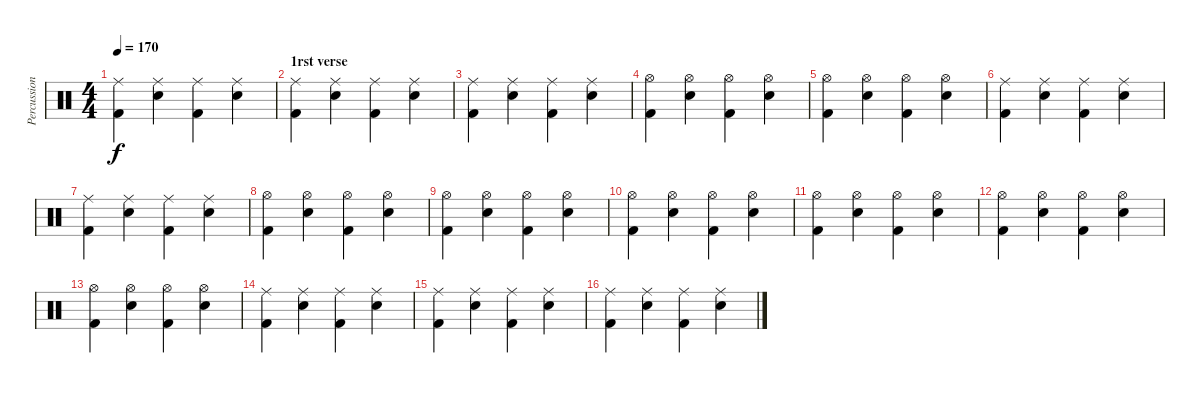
\track ("Percussion" "Percussion") {instrument percussion}
\staff {score}
\articulation defaults
\ts (4 4)
\tempo 170
\clef neutral
\ks c
("Ride (middle)" "Kick (hit) 2").4{dy f} ("Ride (middle)" "Electric Snare (hit)").4 ("Ride (middle)" "Kick (hit) 2").4 ("Ride (middle)" "Electric Snare (hit)").4 |
\section ("" "1rst verse")
("Ride (middle)" "Kick (hit) 2").4 ("Ride (middle)" "Electric Snare (hit)").4 ("Ride (middle)" "Kick (hit) 2").4 ("Ride (middle)" "Electric Snare (hit)").4 |
("Ride (middle)" "Kick (hit) 2").4 ("Ride (middle)" "Electric Snare (hit)").4 ("Ride (middle)" "Kick (hit) 2").4 ("Ride (middle)" "Electric Snare (hit)").4 |
("Hi-Hat (open)" "Kick (hit) 2").4 ("Hi-Hat (open)" "Electric Snare (hit)").4 ("Hi-Hat (open)" "Kick (hit) 2").4 ("Hi-Hat (open)" "Electric Snare (hit)").4 |
("Hi-Hat (open)" "Kick (hit) 2").4 ("Hi-Hat (open)" "Electric Snare (hit)").4 ("Hi-Hat (open)" "Kick (hit) 2").4 ("Hi-Hat (open)" "Electric Snare (hit)").4 |
("Ride (middle)" "Kick (hit) 2").4 ("Ride (middle)" "Electric Snare (hit)").4 ("Ride (middle)" "Kick (hit) 2").4 ("Ride (middle)" "Electric Snare (hit)").4 |
("Ride (middle)" "Kick (hit) 2").4 ("Ride (middle)" "Electric Snare (hit)").4 ("Ride (middle)" "Kick (hit) 2").4 ("Ride (middle)" "Electric Snare (hit)").4 |
("Hi-Hat (open)" "Kick (hit) 2").4 ("Hi-Hat (open)" "Electric Snare (hit)").4 ("Hi-Hat (open)" "Kick (hit) 2").4 ("Hi-Hat (open)" "Electric Snare (hit)").4 |
("Hi-Hat (open)" "Kick (hit) 2").4 ("Hi-Hat (open)" "Electric Snare (hit)").4 ("Hi-Hat (open)" "Kick (hit) 2").4 ("Hi-Hat (open)" "Electric Snare (hit)").4 |
("Hi-Hat (open)" "Kick (hit) 2").4 ("Hi-Hat (open)" "Electric Snare (hit)").4 ("Hi-Hat (open)" "Kick (hit) 2").4 ("Hi-Hat (open)" "Electric Snare (hit)").4 |
("Hi-Hat (open)" "Kick (hit) 2").4 ("Hi-Hat (open)" "Electric Snare (hit)").4 ("Hi-Hat (open)" "Kick (hit) 2").4 ("Hi-Hat (open)" "Electric Snare (hit)").4 |
("Hi-Hat (open)" "Kick (hit) 2").4 ("Hi-Hat (open)" "Electric Snare (hit)").4 ("Hi-Hat (open)" "Kick (hit) 2").4 ("Hi-Hat (open)" "Electric Snare (hit)").4 |
("Hi-Hat (open)" "Kick (hit) 2").4 ("Hi-Hat (open)" "Electric Snare (hit)").4 ("Hi-Hat (open)" "Kick (hit) 2").4 ("Hi-Hat (open)" "Electric Snare (hit)").4 |
("Ride (middle)" "Kick (hit) 2").4 ("Ride (middle)" "Electric Snare (hit)").4 ("Ride (middle)" "Kick (hit) 2").4 ("Ride (middle)" "Electric Snare (hit)").4 |
("Ride (middle)" "Kick (hit) 2").4 ("Ride (middle)" "Electric Snare (hit)").4 ("Ride (middle)" "Kick (hit) 2").4 ("Ride (middle)" "Electric Snare (hit)").4 |
("Ride (middle)" "Kick (hit) 2").4 ("Ride (middle)" "Electric Snare (hit)").4 ("Ride (middle)" "Kick (hit) 2").4 ("Ride (middle)" "Electric Snare (hit)").4
